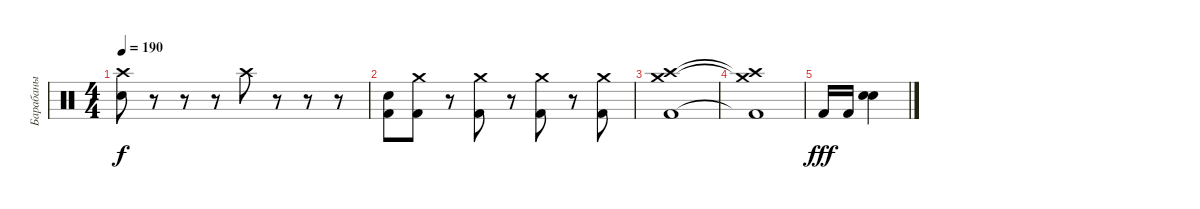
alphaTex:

\track ("Барабаны" "Барабаны") {instrument percussion}
\staff {score}
\articulation defaults
\ts (4 4)
\tempo 190
\clef neutral
\ks c
("Crash high (hit)" "Snare (hit) 2").8{dy f} r.8 r.8 r.8 "Crash high (hit)".8 r.8 r.8 r.8 |
("Snare (hit) 2" "Kick (hit) 2").8 ("Crash medium (hit)" "Kick (hit) 2").8 r.8 ("Crash medium (hit)" "Kick (hit) 2").8 r.8 ("Crash medium (hit)" "Kick (hit) 2").8 r.8 ("Crash medium (hit)" "Kick (hit) 2").8 |
("Crash high (hit)" "Crash medium (hit)" "Kick (hit) 2").1 |
("Crash high (hit)"{t} "Crash medium (hit)"{t} "Kick (hit) 2"{t}).1 |
"Kick (hit) 2".16{dy fff} "Kick (hit) 2".16 ("Electric Snare (hit)" "Snare (hit) 2").4
